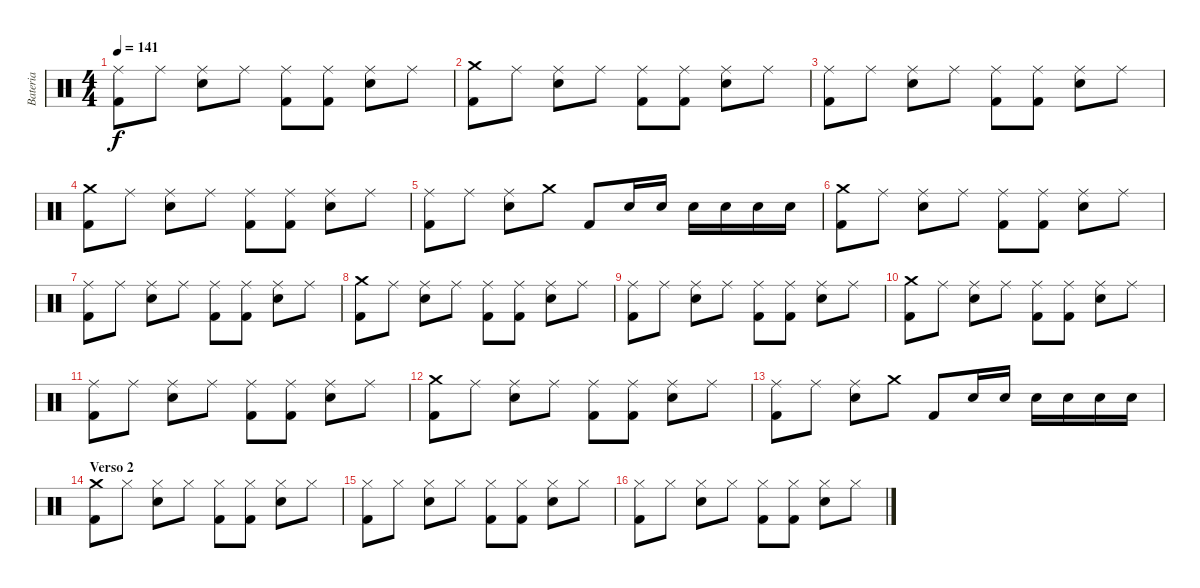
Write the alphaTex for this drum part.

\track ("Bateria" "Bateria") {instrument percussion}
\staff {score}
\articulation defaults
\ts (4 4)
\tempo 141
\clef neutral
\ks c
("Ride (middle)" "Kick (hit) 2").8{dy f} "Ride (middle)".8 ("Ride (middle)" "Electric Snare (hit)").8 "Ride (middle)".8 ("Ride (middle)" "Kick (hit) 2").8 ("Ride (middle)" "Kick (hit) 2").8 ("Ride (middle)" "Electric Snare (hit)").8 "Ride (middle)".8 |
("Crash medium (hit)" "Kick (hit) 2").8 "Ride (middle)".8 ("Ride (middle)" "Electric Snare (hit)").8 "Ride (middle)".8 ("Ride (middle)" "Kick (hit) 2").8 ("Ride (middle)" "Kick (hit) 2").8 ("Ride (middle)" "Electric Snare (hit)").8 "Ride (middle)".8 |
("Ride (middle)" "Kick (hit) 2").8 "Ride (middle)".8 ("Ride (middle)" "Electric Snare (hit)").8 "Ride (middle)".8 ("Ride (middle)" "Kick (hit) 2").8 ("Ride (middle)" "Kick (hit) 2").8 ("Ride (middle)" "Electric Snare (hit)").8 "Ride (middle)".8 |
("Crash medium (hit)" "Kick (hit) 2").8 "Ride (middle)".8 ("Ride (middle)" "Electric Snare (hit)").8 "Ride (middle)".8 ("Ride (middle)" "Kick (hit) 2").8 ("Ride (middle)" "Kick (hit) 2").8 ("Ride (middle)" "Electric Snare (hit)").8 "Ride (middle)".8 |
("Ride (middle)" "Kick (hit) 2").8 "Ride (middle)".8 ("Ride (middle)" "Electric Snare (hit)").8 "Crash medium (hit)".8 "Kick (hit) 2".8 "Electric Snare (hit)".16 "Electric Snare (hit)".16 "Electric Snare (hit)".16 "Electric Snare (hit)".16 "Electric Snare (hit)".16 "Electric Snare (hit)".16 |
("Crash medium (hit)" "Kick (hit) 2").8 "Ride (middle)".8 ("Ride (middle)" "Electric Snare (hit)").8 "Ride (middle)".8 ("Ride (middle)" "Kick (hit) 2").8 ("Ride (middle)" "Kick (hit) 2").8 ("Ride (middle)" "Electric Snare (hit)").8 "Ride (middle)".8 |
("Ride (middle)" "Kick (hit) 2").8 "Ride (middle)".8 ("Ride (middle)" "Electric Snare (hit)").8 "Ride (middle)".8 ("Ride (middle)" "Kick (hit) 2").8 ("Ride (middle)" "Kick (hit) 2").8 ("Ride (middle)" "Electric Snare (hit)").8 "Ride (middle)".8 |
("Crash medium (hit)" "Kick (hit) 2").8 "Ride (middle)".8 ("Ride (middle)" "Electric Snare (hit)").8 "Ride (middle)".8 ("Ride (middle)" "Kick (hit) 2").8 ("Ride (middle)" "Kick (hit) 2").8 ("Ride (middle)" "Electric Snare (hit)").8 "Ride (middle)".8 |
("Ride (middle)" "Kick (hit) 2").8 "Ride (middle)".8 ("Ride (middle)" "Electric Snare (hit)").8 "Ride (middle)".8 ("Ride (middle)" "Kick (hit) 2").8 ("Ride (middle)" "Kick (hit) 2").8 ("Ride (middle)" "Electric Snare (hit)").8 "Ride (middle)".8 |
("Crash medium (hit)" "Kick (hit) 2").8 "Ride (middle)".8 ("Ride (middle)" "Electric Snare (hit)").8 "Ride (middle)".8 ("Ride (middle)" "Kick (hit) 2").8 ("Ride (middle)" "Kick (hit) 2").8 ("Ride (middle)" "Electric Snare (hit)").8 "Ride (middle)".8 |
("Ride (middle)" "Kick (hit) 2").8 "Ride (middle)".8 ("Ride (middle)" "Electric Snare (hit)").8 "Ride (middle)".8 ("Ride (middle)" "Kick (hit) 2").8 ("Ride (middle)" "Kick (hit) 2").8 ("Ride (middle)" "Electric Snare (hit)").8 "Ride (middle)".8 |
("Crash medium (hit)" "Kick (hit) 2").8 "Ride (middle)".8 ("Ride (middle)" "Electric Snare (hit)").8 "Ride (middle)".8 ("Ride (middle)" "Kick (hit) 2").8 ("Ride (middle)" "Kick (hit) 2").8 ("Ride (middle)" "Electric Snare (hit)").8 "Ride (middle)".8 |
("Ride (middle)" "Kick (hit) 2").8 "Ride (middle)".8 ("Ride (middle)" "Electric Snare (hit)").8 "Crash medium (hit)".8 "Kick (hit) 2".8 "Electric Snare (hit)".16 "Electric Snare (hit)".16 "Electric Snare (hit)".16 "Electric Snare (hit)".16 "Electric Snare (hit)".16 "Electric Snare (hit)".16 |
\section ("" "Verso 2")
("Crash medium (hit)" "Kick (hit) 2").8 "Hi-Hat (closed)".8 ("Hi-Hat (closed)" "Electric Snare (hit)").8 "Hi-Hat (closed)".8 ("Hi-Hat (closed)" "Kick (hit) 2").8 ("Hi-Hat (closed)" "Kick (hit) 2").8 ("Hi-Hat (closed)" "Electric Snare (hit)").8 "Hi-Hat (closed)".8 |
("Hi-Hat (closed)" "Kick (hit) 2").8 "Hi-Hat (closed)".8 ("Hi-Hat (closed)" "Electric Snare (hit)").8 "Hi-Hat (closed)".8 ("Hi-Hat (closed)" "Kick (hit) 2").8 ("Hi-Hat (closed)" "Kick (hit) 2").8 ("Hi-Hat (closed)" "Electric Snare (hit)").8 "Hi-Hat (closed)".8 |
("Hi-Hat (closed)" "Kick (hit) 2").8 "Hi-Hat (closed)".8 ("Hi-Hat (closed)" "Electric Snare (hit)").8 "Hi-Hat (closed)".8 ("Hi-Hat (closed)" "Kick (hit) 2").8 ("Hi-Hat (closed)" "Kick (hit) 2").8 ("Hi-Hat (closed)" "Electric Snare (hit)").8 "Hi-Hat (closed)".8
